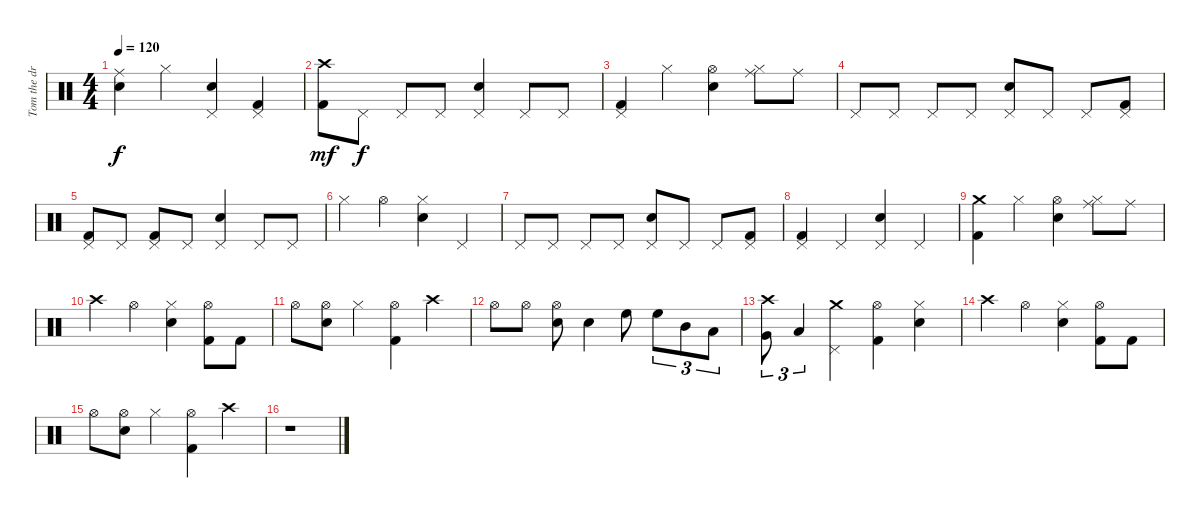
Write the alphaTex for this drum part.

\track ("Tom the drummer" "Tom the dr") {instrument percussion}
\staff {score}
\articulation defaults
\ts (4 4)
\tempo 120
\clef neutral
\ks c
("Ride (middle)" "Snare (hit) 2").4{dy f} "Hi-Hat (closed)".4 ("Pedal Hi-Hat (hit)" "Snare (hit) 2").4 ("Pedal Hi-Hat (hit)" "Kick (hit) 2").4 |
("Crash high (hit)" "Kick (hit) 2").8{dy mf} "Pedal Hi-Hat (hit)".8{dy f} "Pedal Hi-Hat (hit)".8 "Pedal Hi-Hat (hit)".8 ("Pedal Hi-Hat (hit)" "Snare (hit) 2").4 "Pedal Hi-Hat (hit)".8 "Pedal Hi-Hat (hit)".8 |
("Pedal Hi-Hat (hit)" "Kick (hit) 2").4 "Hi-Hat (closed)".4 ("Hi-Hat (open)" "Snare (hit) 2").4 ("Hi-Hat (closed)" "Ride (middle)").8 "Ride (middle)".8 |
"Pedal Hi-Hat (hit)".8 "Pedal Hi-Hat (hit)".8 "Pedal Hi-Hat (hit)".8 "Pedal Hi-Hat (hit)".8 ("Pedal Hi-Hat (hit)" "Snare (hit) 2").8 "Pedal Hi-Hat (hit)".8 "Pedal Hi-Hat (hit)".8 ("Pedal Hi-Hat (hit)" "Kick (hit) 2").8 |
("Pedal Hi-Hat (hit)" "Kick (hit) 2").8 "Pedal Hi-Hat (hit)".8 ("Pedal Hi-Hat (hit)" "Kick (hit) 2").8 "Pedal Hi-Hat (hit)".8 ("Pedal Hi-Hat (hit)" "Snare (hit) 2").4 "Pedal Hi-Hat (hit)".8 "Pedal Hi-Hat (hit)".8 |
"Hi-Hat (closed)".4 "Hi-Hat (open)".4 ("Hi-Hat (closed)" "Snare (hit) 2").4 "Pedal Hi-Hat (hit)".4 |
"Pedal Hi-Hat (hit)".8 "Pedal Hi-Hat (hit)".8 "Pedal Hi-Hat (hit)".8 "Pedal Hi-Hat (hit)".8 ("Pedal Hi-Hat (hit)" "Snare (hit) 2").8 "Pedal Hi-Hat (hit)".8 "Pedal Hi-Hat (hit)".8 ("Pedal Hi-Hat (hit)" "Kick (hit) 2").8 |
("Pedal Hi-Hat (hit)" "Kick (hit) 2").4 "Pedal Hi-Hat (hit)".4 ("Pedal Hi-Hat (hit)" "Snare (hit) 2").4 "Pedal Hi-Hat (hit)".4 |
("Crash medium (hit)" "Kick (hit) 2").4 "Hi-Hat (closed)".4 ("Hi-Hat (open)" "Snare (hit) 2").4 ("Hi-Hat (closed)" "Ride (middle)").8 "Ride (middle)".8 |
"Crash high (hit)".4 "Hi-Hat (open)".4 ("Hi-Hat (closed)" "Snare (hit) 2").4 ("Hi-Hat (open)" "Kick (hit) 2").8 "Kick (hit) 2".8 |
"Hi-Hat (open)".8 ("Hi-Hat (open)" "Snare (hit) 2").8 "Hi-Hat (closed)".4 ("Hi-Hat (open)" "Kick (hit) 2").4 "Crash high (hit)".4 |
"Hi-Hat (open)".8 "Hi-Hat (open)".8 ("Hi-Hat (open)" "Snare (hit) 2").8 "Snare (hit) 2".4 "High Floor Tom (hit)".8 "High Floor Tom (hit)".8{tu (3 2)} "Mid Tom (hit)".8{tu (3 2)} "Low Tom (hit)".8{tu (3 2)} |
("Very Low Tom (hit)" "Crash high (hit)").8{tu (3 2)} "Low Floor Tom (hit)".4{tu (3 2)} ("Pedal Hi-Hat (hit)" "Crash medium (hit)").4 ("Hi-Hat (open)" "Kick (hit) 2").4 ("Hi-Hat (closed)" "Snare (hit) 2").4 |
"Crash high (hit)".4 "Hi-Hat (open)".4 ("Hi-Hat (closed)" "Snare (hit) 2").4 ("Hi-Hat (open)" "Kick (hit) 2").8 "Kick (hit) 2".8 |
"Hi-Hat (open)".8 ("Hi-Hat (open)" "Snare (hit) 2").8 "Hi-Hat (closed)".4 ("Hi-Hat (open)" "Kick (hit) 2").4 "Crash high (hit)".4 |
r.1
